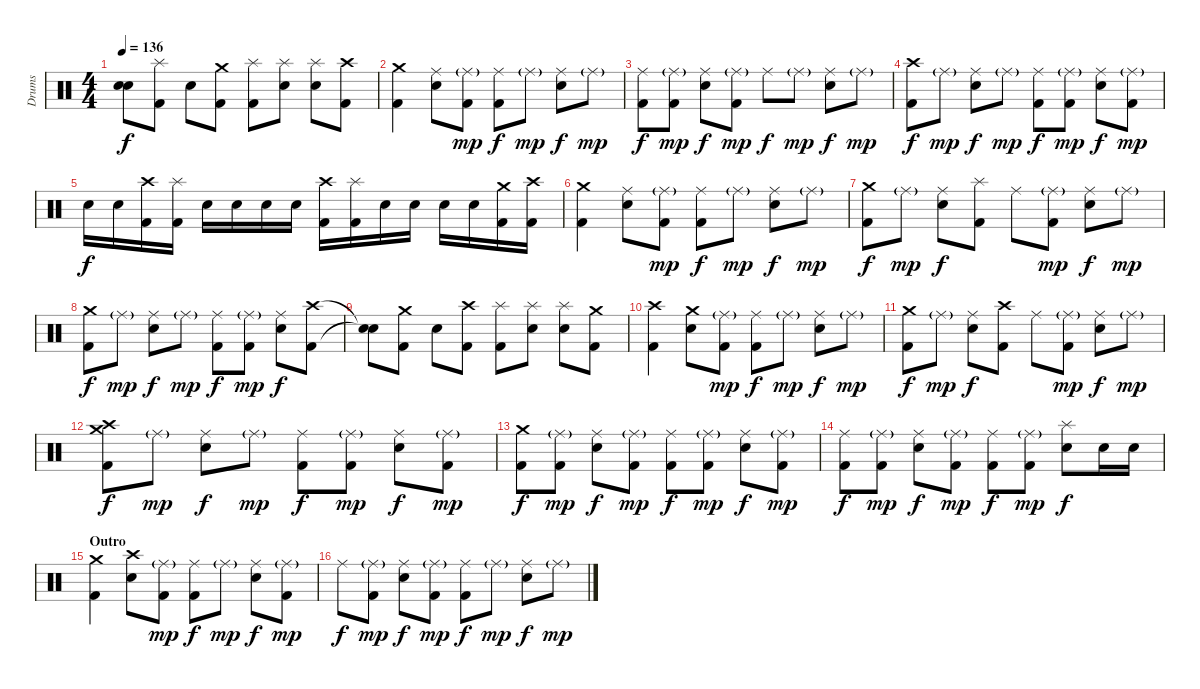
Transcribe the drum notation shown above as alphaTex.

\track ("Drums" "Drums") {instrument percussion}
\staff {score}
\articulation defaults
\ts (4 4)
\tempo 136
\clef neutral
\ks c
("Snare (hit)"{t} "Snare (hit)"{t}).8{dy f} ("Splash (hit)" "Kick (hit) 2").8 "Snare (hit) 2".8 ("Crash medium (hit)" "Kick (hit) 2").8 ("Splash (hit)" "Kick (hit) 2").8 ("Splash (hit)" "Snare (hit) 2").8 ("Splash (hit)" "Snare (hit) 2").8 ("Crash high (hit)" "Kick (hit) 2").8 |
("Crash medium (hit)" "Kick (hit) 2").4 ("Ride (middle)" "Snare (hit) 2").8 ("Ride (middle)"{g} "Kick (hit) 2").8{dy mp} ("Ride (middle)" "Kick (hit) 2").8{dy f} "Ride (middle)"{g}.8{dy mp} ("Ride (middle)" "Snare (hit) 2").8{dy f} "Ride (middle)"{g}.8{dy mp} |
("Ride (middle)" "Kick (hit) 2").8{dy f} ("Ride (middle)"{g} "Kick (hit) 2").8{dy mp} ("Ride (middle)" "Snare (hit) 2").8{dy f} ("Ride (middle)"{g} "Kick (hit) 2").8{dy mp} "Ride (middle)".8{dy f} "Ride (middle)"{g}.8{dy mp} ("Ride (middle)" "Snare (hit) 2").8{dy f} "Ride (middle)"{g}.8{dy mp} |
("Crash high (hit)" "Kick (hit) 2").8{dy f} "Ride (middle)"{g}.8{dy mp} ("Ride (middle)" "Snare (hit) 2").8{dy f} "Ride (middle)"{g}.8{dy mp} ("Ride (middle)" "Kick (hit) 2").8{dy f} ("Ride (middle)"{g} "Kick (hit) 2").8{dy mp} ("Ride (middle)" "Snare (hit) 2").8{dy f} ("Ride (middle)"{g} "Kick (hit) 2").8{dy mp} |
"Snare (hit) 2".16{dy f} "Snare (hit) 2".16 ("Crash high (hit)" "Kick (hit) 2").16 ("Splash (hit)" "Kick (hit) 2").16 "Snare (hit) 2".16 "Snare (hit) 2".16 "Snare (hit) 2".16 "Snare (hit) 2".16 ("Crash high (hit)" "Kick (hit) 2").16 ("Splash (hit)" "Kick (hit) 2").16 "Snare (hit) 2".16 "Snare (hit) 2".16 "Snare (hit) 2".16 "Snare (hit) 2".16 ("Crash medium (hit)" "Kick (hit) 2").16 ("Crash high (hit)" "Kick (hit) 2").16 |
("Crash medium (hit)" "Kick (hit) 2").4 ("Ride (middle)" "Snare (hit) 2").8 ("Ride (middle)"{g} "Kick (hit) 2").8{dy mp} ("Ride (middle)" "Kick (hit) 2").8{dy f} "Ride (middle)"{g}.8{dy mp} ("Ride (middle)" "Snare (hit) 2").8{dy f} "Ride (middle)"{g}.8{dy mp} |
("Crash medium (hit)" "Kick (hit) 2").8{dy f} "Ride (middle)"{g}.8{dy mp} ("Ride (middle)" "Snare (hit) 2").8{dy f} ("Splash (hit)" "Kick (hit) 2").8 "Ride (middle)".8 ("Ride (middle)"{g} "Kick (hit) 2").8{dy mp} ("Ride (middle)" "Snare (hit) 2").8{dy f} "Ride (middle)"{g}.8{dy mp} |
("Crash medium (hit)" "Kick (hit) 2").8{dy f} "Ride (middle)"{g}.8{dy mp} ("Ride (middle)" "Snare (hit) 2").8{dy f} "Ride (middle)"{g}.8{dy mp} ("Ride (middle)" "Kick (hit) 2").8{dy f} ("Ride (middle)"{g} "Kick (hit) 2").8{dy mp} ("Ride (middle)" "Snare (hit) 2").8{dy f} ("Crash high (hit)" "Kick (hit) 2").8 |
("Snare (hit)"{t} "Snare (hit)"{t}).8 ("Crash medium (hit)" "Kick (hit) 2").8 "Snare (hit) 2".8 ("Crash high (hit)" "Kick (hit) 2").8 ("Splash (hit)" "Kick (hit) 2").8 ("Splash (hit)" "Snare (hit) 2").8 ("Splash (hit)" "Snare (hit) 2").8 ("Crash medium (hit)" "Kick (hit) 2").8 |
("Crash high (hit)" "Kick (hit) 2").4 ("Crash medium (hit)" "Snare (hit) 2").8 ("Ride (middle)"{g} "Kick (hit) 2").8{dy mp} ("Ride (middle)" "Kick (hit) 2").8{dy f} "Ride (middle)"{g}.8{dy mp} ("Ride (middle)" "Snare (hit) 2").8{dy f} "Ride (middle)"{g}.8{dy mp} |
("Crash medium (hit)" "Kick (hit) 2").8{dy f} "Ride (middle)"{g}.8{dy mp} ("Ride (middle)" "Snare (hit) 2").8{dy f} ("Crash high (hit)" "Kick (hit) 2").8 "Ride (middle)".8 ("Ride (middle)"{g} "Kick (hit) 2").8{dy mp} ("Ride (middle)" "Snare (hit) 2").8{dy f} "Ride (middle)"{g}.8{dy mp} |
("Crash medium (hit)" "Crash high (hit)" "Kick (hit) 2").8{dy f} "Ride (middle)"{g}.8{dy mp} ("Ride (middle)" "Snare (hit) 2").8{dy f} "Ride (middle)"{g}.8{dy mp} ("Ride (middle)" "Kick (hit) 2").8{dy f} ("Ride (middle)"{g} "Kick (hit) 2").8{dy mp} ("Ride (middle)" "Snare (hit) 2").8{dy f} ("Ride (middle)"{g} "Kick (hit) 2").8{dy mp} |
("Crash medium (hit)" "Kick (hit) 2").8{dy f} ("Ride (middle)"{g} "Kick (hit) 2").8{dy mp} ("Ride (middle)" "Snare (hit) 2").8{dy f} ("Ride (middle)"{g} "Kick (hit) 2").8{dy mp} ("Ride (middle)" "Kick (hit) 2").8{dy f} ("Ride (middle)"{g} "Kick (hit) 2").8{dy mp} ("Ride (middle)" "Snare (hit) 2").8{dy f} ("Ride (middle)"{g} "Kick (hit) 2").8{dy mp} |
("Ride (middle)" "Kick (hit) 2").8{dy f} ("Ride (middle)"{g} "Kick (hit) 2").8{dy mp} ("Ride (middle)" "Snare (hit) 2").8{dy f} ("Ride (middle)"{g} "Kick (hit) 2").8{dy mp} ("Ride (middle)" "Kick (hit) 2").8{dy f} ("Ride (middle)"{g} "Kick (hit) 2").8{dy mp} ("Splash (hit)" "Snare (hit) 2").8{dy f} "Snare (hit) 2".16 "Snare (hit) 2".16 |
\section ("" "Outro")
("Crash medium (hit)" "Kick (hit) 2").4 ("Crash high (hit)" "Snare (hit) 2").8 ("Ride (middle)"{g} "Kick (hit) 2").8{dy mp} ("Ride (middle)" "Kick (hit) 2").8{dy f} "Ride (middle)"{g}.8{dy mp} ("Ride (middle)" "Snare (hit) 2").8{dy f} ("Ride (middle)"{g} "Kick (hit) 2").8{dy mp} |
"Ride (middle)".8{dy f} ("Ride (middle)"{g} "Kick (hit) 2").8{dy mp} ("Ride (middle)" "Snare (hit) 2").8{dy f} ("Ride (middle)"{g} "Kick (hit) 2").8{dy mp} ("Ride (middle)" "Kick (hit) 2").8{dy f} "Ride (middle)"{g}.8{dy mp} ("Ride (middle)" "Snare (hit) 2").8{dy f} "Ride (middle)"{g}.8{dy mp}
